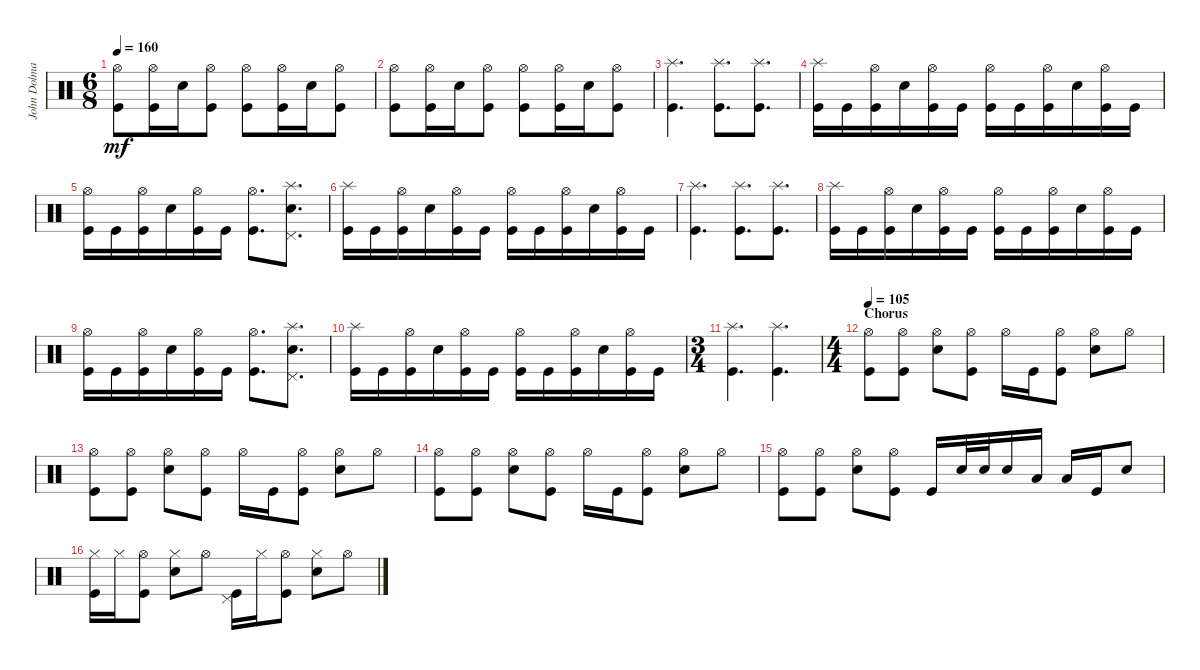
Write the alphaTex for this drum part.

\track ("John Dolmayan" "John Dolma") {instrument percussion}
\staff {score}
\articulation defaults
\ts (6 8)
\tempo 160
\clef neutral
\ks c
("Kick (hit)" "Hi-Hat (open)").8{dy mf} ("Kick (hit)" "Hi-Hat (open)").16 "Snare (hit) 2".16 ("Kick (hit)" "Hi-Hat (open)").8 ("Kick (hit)" "Hi-Hat (open)").8 ("Kick (hit)" "Hi-Hat (open)").16 "Snare (hit) 2".16 ("Kick (hit)" "Hi-Hat (open)").8 |
("Kick (hit)" "Hi-Hat (open)").8 ("Kick (hit)" "Hi-Hat (open)").16 "Snare (hit) 2".16 ("Kick (hit)" "Hi-Hat (open)").8 ("Kick (hit)" "Hi-Hat (open)").8 ("Kick (hit)" "Hi-Hat (open)").16 "Snare (hit) 2".16 ("Kick (hit)" "Hi-Hat (open)").8 |
("Kick (hit)" "Splash (hit)").4{d} ("Kick (hit)" "Splash (hit)").8{d} ("Kick (hit)" "Splash (hit)").8{d} |
("Kick (hit)" "Splash (hit)").16 "Kick (hit)".16 ("Kick (hit)" "Hi-Hat (open)").16 "Snare (hit) 2".16 ("Kick (hit)" "Hi-Hat (open)").16 "Kick (hit)".16 ("Kick (hit)" "Hi-Hat (open)").16 "Kick (hit)".16 ("Kick (hit)" "Hi-Hat (open)").16 "Snare (hit) 2".16 ("Kick (hit)" "Hi-Hat (open)").16 "Kick (hit)".16 |
("Kick (hit)" "Hi-Hat (open)").16 "Kick (hit)".16 ("Kick (hit)" "Hi-Hat (open)").16 "Snare (hit) 2".16 ("Kick (hit)" "Hi-Hat (open)").16 "Kick (hit)".16 ("Kick (hit)" "Hi-Hat (open)").8{d} ("Snare (hit) 2" "Splash (hit)" "Pedal Hi-Hat (hit)").8{d} |
("Kick (hit)" "Splash (hit)").16 "Kick (hit)".16 ("Kick (hit)" "Hi-Hat (open)").16 "Snare (hit) 2".16 ("Kick (hit)" "Hi-Hat (open)").16 "Kick (hit)".16 ("Kick (hit)" "Hi-Hat (open)").16 "Kick (hit)".16 ("Kick (hit)" "Hi-Hat (open)").16 "Snare (hit) 2".16 ("Kick (hit)" "Hi-Hat (open)").16 "Kick (hit)".16 |
("Kick (hit)" "Splash (hit)").4{d} ("Kick (hit)" "Splash (hit)").8{d} ("Kick (hit)" "Splash (hit)").8{d} |
("Kick (hit)" "Splash (hit)").16 "Kick (hit)".16 ("Kick (hit)" "Hi-Hat (open)").16 "Snare (hit) 2".16 ("Kick (hit)" "Hi-Hat (open)").16 "Kick (hit)".16 ("Kick (hit)" "Hi-Hat (open)").16 "Kick (hit)".16 ("Kick (hit)" "Hi-Hat (open)").16 "Snare (hit) 2".16 ("Kick (hit)" "Hi-Hat (open)").16 "Kick (hit)".16 |
("Kick (hit)" "Hi-Hat (open)").16 "Kick (hit)".16 ("Kick (hit)" "Hi-Hat (open)").16 "Snare (hit) 2".16 ("Kick (hit)" "Hi-Hat (open)").16 "Kick (hit)".16 ("Kick (hit)" "Hi-Hat (open)").8{d} ("Snare (hit) 2" "Splash (hit)" "Pedal Hi-Hat (hit)").8{d} |
("Kick (hit)" "Splash (hit)").16 "Kick (hit)".16 ("Kick (hit)" "Hi-Hat (open)").16 "Snare (hit) 2".16 ("Kick (hit)" "Hi-Hat (open)").16 "Kick (hit)".16 ("Kick (hit)" "Hi-Hat (open)").16 "Kick (hit)".16 ("Kick (hit)" "Hi-Hat (open)").16 "Snare (hit) 2".16 ("Kick (hit)" "Hi-Hat (open)").16 "Kick (hit)".16 |
\ts (3 4)
("Kick (hit)" "Splash (hit)").4{d} ("Splash (hit)" "Kick (hit)").4{d} |
\ts (4 4)
\section ("" "Chorus")
\tempo 105
("Kick (hit)" "Hi-Hat (open)").8 ("Kick (hit)" "Hi-Hat (open)").8 ("Snare (hit) 2" "Hi-Hat (open)").8 ("Kick (hit)" "Hi-Hat (open)").8 "Hi-Hat (open)".16 "Kick (hit)".16 ("Hi-Hat (open)" "Kick (hit)").8 ("Snare (hit) 2" "Hi-Hat (open)").8 "Hi-Hat (open)".8 |
("Kick (hit)" "Hi-Hat (open)").8 ("Kick (hit)" "Hi-Hat (open)").8 ("Snare (hit) 2" "Hi-Hat (open)").8 ("Kick (hit)" "Hi-Hat (open)").8 "Hi-Hat (open)".16 "Kick (hit)".16 ("Hi-Hat (open)" "Kick (hit)").8 ("Snare (hit) 2" "Hi-Hat (open)").8 "Hi-Hat (open)".8 |
("Kick (hit)" "Hi-Hat (open)").8 ("Kick (hit)" "Hi-Hat (open)").8 ("Snare (hit) 2" "Hi-Hat (open)").8 ("Kick (hit)" "Hi-Hat (open)").8 "Hi-Hat (open)".16 "Kick (hit)".16 ("Hi-Hat (open)" "Kick (hit)").8 ("Snare (hit) 2" "Hi-Hat (open)").8 "Hi-Hat (open)".8 |
("Kick (hit)" "Hi-Hat (open)").8 ("Kick (hit)" "Hi-Hat (open)").8 ("Snare (hit) 2" "Hi-Hat (open)").8 ("Hi-Hat (open)" "Kick (hit)").8 "Kick (hit)".16 "Snare (hit) 2".32 "Snare (hit) 2".32 "Snare (hit) 2".16 "Low Tom (hit)".16 "Low Tom (hit)".16 "Kick (hit)".16 "Snare (hit) 2".8 |
("Hi-Hat (closed)" "Kick (hit)").16 "Hi-Hat (closed)".16 ("Hi-Hat (open)" "Kick (hit)").8 ("Hi-Hat (closed)" "Snare (hit) 2").8 "Hi-Hat (open)".8 ("Pedal Hi-Hat (hit)" "Kick (hit)").16 "Hi-Hat (closed)".16 ("Hi-Hat (open)" "Kick (hit)").8 ("Hi-Hat (closed)" "Snare (hit) 2").8 "Hi-Hat (open)".8
